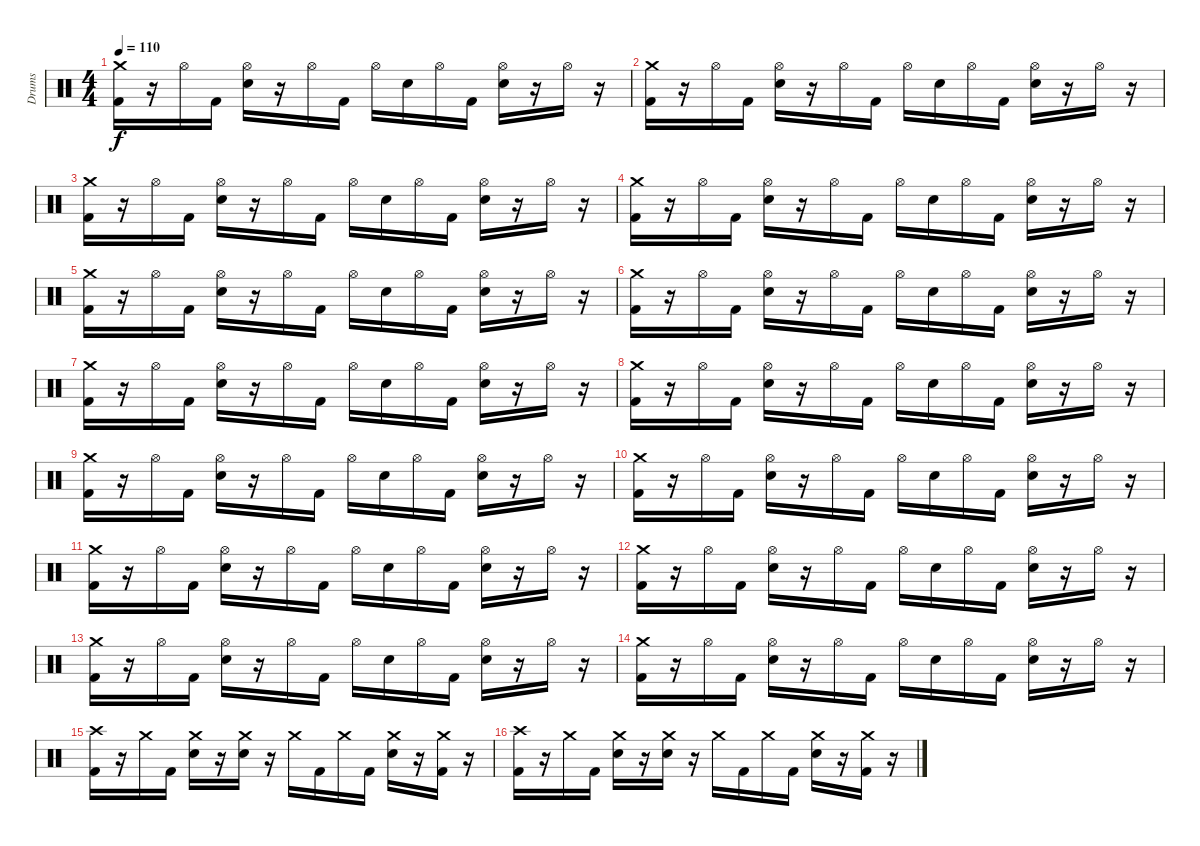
\track ("Drums" "Drums") {instrument percussion}
\staff {score}
\articulation defaults
\ts (4 4)
\tempo 110
\clef neutral
\ks c
("Crash medium (hit)" "Kick (hit) 2").16{dy f} r.16 "Hi-Hat (open)".16 "Kick (hit) 2".16 ("Hi-Hat (open)" "Electric Snare (hit)").16 r.16 "Hi-Hat (open)".16 "Kick (hit) 2".16 "Hi-Hat (open)".16 "Electric Snare (hit)".16 "Hi-Hat (open)".16 "Kick (hit) 2".16 ("Hi-Hat (open)" "Electric Snare (hit)").16 r.16 "Hi-Hat (open)".16 r.16 |
("Crash medium (hit)" "Kick (hit) 2").16 r.16 "Hi-Hat (open)".16 "Kick (hit) 2".16 ("Hi-Hat (open)" "Electric Snare (hit)").16 r.16 "Hi-Hat (open)".16 "Kick (hit) 2".16 "Hi-Hat (open)".16 "Electric Snare (hit)".16 "Hi-Hat (open)".16 "Kick (hit) 2".16 ("Hi-Hat (open)" "Electric Snare (hit)").16 r.16 "Hi-Hat (open)".16 r.16 |
("Crash medium (hit)" "Kick (hit) 2").16 r.16 "Hi-Hat (open)".16 "Kick (hit) 2".16 ("Hi-Hat (open)" "Electric Snare (hit)").16 r.16 "Hi-Hat (open)".16 "Kick (hit) 2".16 "Hi-Hat (open)".16 "Electric Snare (hit)".16 "Hi-Hat (open)".16 "Kick (hit) 2".16 ("Hi-Hat (open)" "Electric Snare (hit)").16 r.16 "Hi-Hat (open)".16 r.16 |
("Crash medium (hit)" "Kick (hit) 2").16 r.16 "Hi-Hat (open)".16 "Kick (hit) 2".16 ("Hi-Hat (open)" "Electric Snare (hit)").16 r.16 "Hi-Hat (open)".16 "Kick (hit) 2".16 "Hi-Hat (open)".16 "Electric Snare (hit)".16 "Hi-Hat (open)".16 "Kick (hit) 2".16 ("Hi-Hat (open)" "Electric Snare (hit)").16 r.16 "Hi-Hat (open)".16 r.16 |
("Crash medium (hit)" "Kick (hit) 2").16 r.16 "Hi-Hat (open)".16 "Kick (hit) 2".16 ("Hi-Hat (open)" "Electric Snare (hit)").16 r.16 "Hi-Hat (open)".16 "Kick (hit) 2".16 "Hi-Hat (open)".16 "Electric Snare (hit)".16 "Hi-Hat (open)".16 "Kick (hit) 2".16 ("Hi-Hat (open)" "Electric Snare (hit)").16 r.16 "Hi-Hat (open)".16 r.16 |
("Crash medium (hit)" "Kick (hit) 2").16 r.16 "Hi-Hat (open)".16 "Kick (hit) 2".16 ("Hi-Hat (open)" "Electric Snare (hit)").16 r.16 "Hi-Hat (open)".16 "Kick (hit) 2".16 "Hi-Hat (open)".16 "Electric Snare (hit)".16 "Hi-Hat (open)".16 "Kick (hit) 2".16 ("Hi-Hat (open)" "Electric Snare (hit)").16 r.16 "Hi-Hat (open)".16 r.16 |
("Crash medium (hit)" "Kick (hit) 2").16 r.16 "Hi-Hat (open)".16 "Kick (hit) 2".16 ("Hi-Hat (open)" "Electric Snare (hit)").16 r.16 "Hi-Hat (open)".16 "Kick (hit) 2".16 "Hi-Hat (open)".16 "Electric Snare (hit)".16 "Hi-Hat (open)".16 "Kick (hit) 2".16 ("Hi-Hat (open)" "Electric Snare (hit)").16 r.16 "Hi-Hat (open)".16 r.16 |
("Crash medium (hit)" "Kick (hit) 2").16 r.16 "Hi-Hat (open)".16 "Kick (hit) 2".16 ("Hi-Hat (open)" "Electric Snare (hit)").16 r.16 "Hi-Hat (open)".16 "Kick (hit) 2".16 "Hi-Hat (open)".16 "Electric Snare (hit)".16 "Hi-Hat (open)".16 "Kick (hit) 2".16 ("Hi-Hat (open)" "Electric Snare (hit)").16 r.16 "Hi-Hat (open)".16 r.16 |
("Crash medium (hit)" "Kick (hit) 2").16 r.16 "Hi-Hat (open)".16 "Kick (hit) 2".16 ("Hi-Hat (open)" "Electric Snare (hit)").16 r.16 "Hi-Hat (open)".16 "Kick (hit) 2".16 "Hi-Hat (open)".16 "Electric Snare (hit)".16 "Hi-Hat (open)".16 "Kick (hit) 2".16 ("Hi-Hat (open)" "Electric Snare (hit)").16 r.16 "Hi-Hat (open)".16 r.16 |
("Crash medium (hit)" "Kick (hit) 2").16 r.16 "Hi-Hat (open)".16 "Kick (hit) 2".16 ("Hi-Hat (open)" "Electric Snare (hit)").16 r.16 "Hi-Hat (open)".16 "Kick (hit) 2".16 "Hi-Hat (open)".16 "Electric Snare (hit)".16 "Hi-Hat (open)".16 "Kick (hit) 2".16 ("Hi-Hat (open)" "Electric Snare (hit)").16 r.16 "Hi-Hat (open)".16 r.16 |
("Crash medium (hit)" "Kick (hit) 2").16 r.16 "Hi-Hat (open)".16 "Kick (hit) 2".16 ("Hi-Hat (open)" "Electric Snare (hit)").16 r.16 "Hi-Hat (open)".16 "Kick (hit) 2".16 "Hi-Hat (open)".16 "Electric Snare (hit)".16 "Hi-Hat (open)".16 "Kick (hit) 2".16 ("Hi-Hat (open)" "Electric Snare (hit)").16 r.16 "Hi-Hat (open)".16 r.16 |
("Crash medium (hit)" "Kick (hit) 2").16 r.16 "Hi-Hat (open)".16 "Kick (hit) 2".16 ("Hi-Hat (open)" "Electric Snare (hit)").16 r.16 "Hi-Hat (open)".16 "Kick (hit) 2".16 "Hi-Hat (open)".16 "Electric Snare (hit)".16 "Hi-Hat (open)".16 "Kick (hit) 2".16 ("Hi-Hat (open)" "Electric Snare (hit)").16 r.16 "Hi-Hat (open)".16 r.16 |
("Crash medium (hit)" "Kick (hit) 2").16 r.16 "Hi-Hat (open)".16 "Kick (hit) 2".16 ("Hi-Hat (open)" "Electric Snare (hit)").16 r.16 "Hi-Hat (open)".16 "Kick (hit) 2".16 "Hi-Hat (open)".16 "Electric Snare (hit)".16 "Hi-Hat (open)".16 "Kick (hit) 2".16 ("Hi-Hat (open)" "Electric Snare (hit)").16 r.16 "Hi-Hat (open)".16 r.16 |
("Crash medium (hit)" "Kick (hit) 2").16 r.16 "Hi-Hat (open)".16 "Kick (hit) 2".16 ("Hi-Hat (open)" "Electric Snare (hit)").16 r.16 "Hi-Hat (open)".16 "Kick (hit) 2".16 "Hi-Hat (open)".16 "Electric Snare (hit)".16 "Hi-Hat (open)".16 "Kick (hit) 2".16 ("Hi-Hat (open)" "Electric Snare (hit)").16 r.16 "Hi-Hat (open)".16 r.16 |
("Crash high (hit)" "Kick (hit) 2").16 r.16 "Crash medium (hit)".16 "Kick (hit) 2".16 ("Crash medium (hit)" "Electric Snare (hit)").16 r.16 ("Crash medium (hit)" "Electric Snare (hit)").16 r.16 "Crash medium (hit)".16 "Kick (hit) 2".16 "Crash medium (hit)".16 "Kick (hit) 2".16 ("Crash medium (hit)" "Electric Snare (hit)").16 r.16 ("Crash medium (hit)" "Kick (hit) 2").16 r.16 |
("Crash high (hit)" "Kick (hit) 2").16 r.16 "Crash medium (hit)".16 "Kick (hit) 2".16 ("Crash medium (hit)" "Electric Snare (hit)").16 r.16 ("Crash medium (hit)" "Electric Snare (hit)").16 r.16 "Crash medium (hit)".16 "Kick (hit) 2".16 "Crash medium (hit)".16 "Kick (hit) 2".16 ("Crash medium (hit)" "Electric Snare (hit)").16 r.16 ("Crash medium (hit)" "Kick (hit) 2").16 r.16
